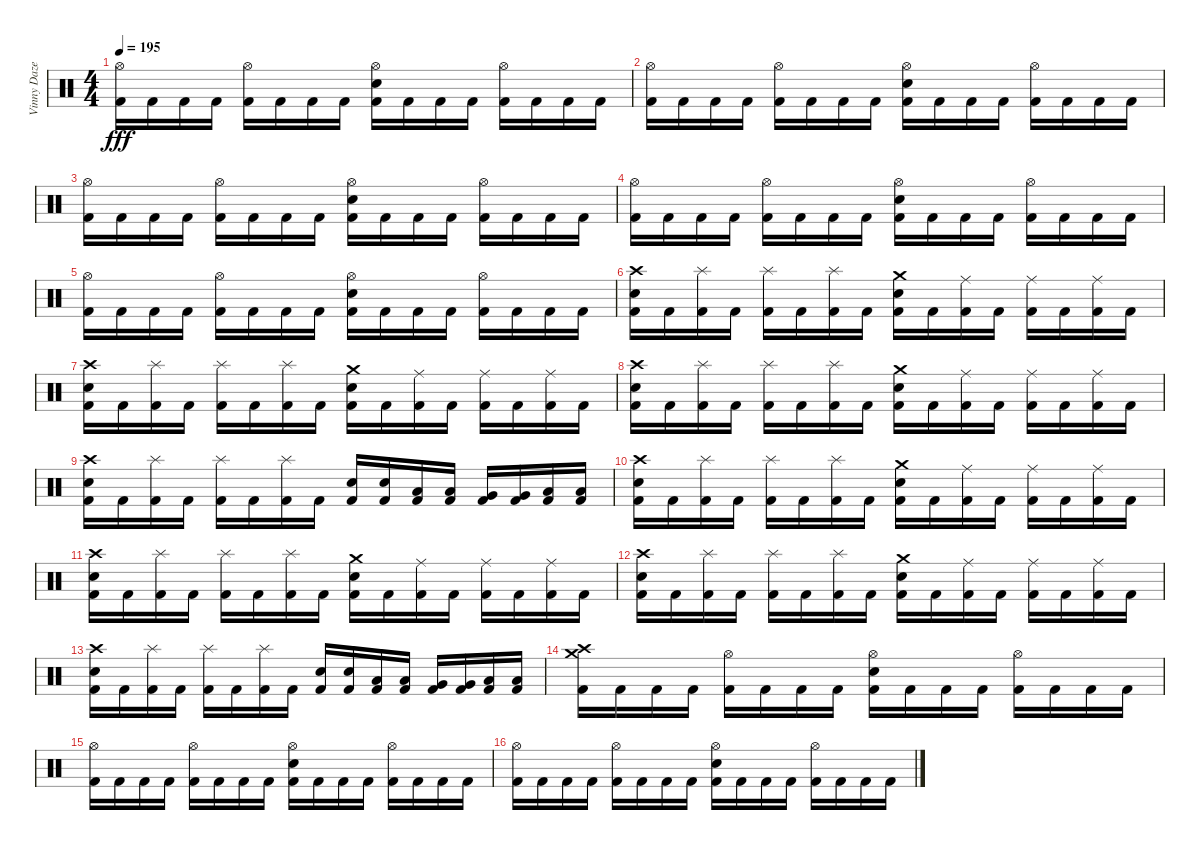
\track ("Vinny Daze (R.I.P.)" "Vinny Daze") {instrument percussion}
\staff {score}
\articulation defaults
\ts (4 4)
\tempo 195
\clef neutral
\ks c
("Hi-Hat (open)" "Kick (hit) 2").16{dy fff} "Kick (hit) 2".16 "Kick (hit) 2".16 "Kick (hit) 2".16 ("Hi-Hat (open)" "Kick (hit) 2").16 "Kick (hit) 2".16 "Kick (hit) 2".16 "Kick (hit) 2".16 ("Hi-Hat (open)" "Electric Snare (hit)" "Kick (hit) 2").16 "Kick (hit) 2".16 "Kick (hit) 2".16 "Kick (hit) 2".16 ("Hi-Hat (open)" "Kick (hit) 2").16 "Kick (hit) 2".16 "Kick (hit) 2".16 "Kick (hit) 2".16 |
("Hi-Hat (open)" "Kick (hit) 2").16 "Kick (hit) 2".16 "Kick (hit) 2".16 "Kick (hit) 2".16 ("Hi-Hat (open)" "Kick (hit) 2").16 "Kick (hit) 2".16 "Kick (hit) 2".16 "Kick (hit) 2".16 ("Hi-Hat (open)" "Electric Snare (hit)" "Kick (hit) 2").16 "Kick (hit) 2".16 "Kick (hit) 2".16 "Kick (hit) 2".16 ("Hi-Hat (open)" "Kick (hit) 2").16 "Kick (hit) 2".16 "Kick (hit) 2".16 "Kick (hit) 2".16 |
("Hi-Hat (open)" "Kick (hit) 2").16 "Kick (hit) 2".16 "Kick (hit) 2".16 "Kick (hit) 2".16 ("Hi-Hat (open)" "Kick (hit) 2").16 "Kick (hit) 2".16 "Kick (hit) 2".16 "Kick (hit) 2".16 ("Hi-Hat (open)" "Electric Snare (hit)" "Kick (hit) 2").16 "Kick (hit) 2".16 "Kick (hit) 2".16 "Kick (hit) 2".16 ("Hi-Hat (open)" "Kick (hit) 2").16 "Kick (hit) 2".16 "Kick (hit) 2".16 "Kick (hit) 2".16 |
("Hi-Hat (open)" "Kick (hit) 2").16 "Kick (hit) 2".16 "Kick (hit) 2".16 "Kick (hit) 2".16 ("Hi-Hat (open)" "Kick (hit) 2").16 "Kick (hit) 2".16 "Kick (hit) 2".16 "Kick (hit) 2".16 ("Hi-Hat (open)" "Electric Snare (hit)" "Kick (hit) 2").16 "Kick (hit) 2".16 "Kick (hit) 2".16 "Kick (hit) 2".16 ("Hi-Hat (open)" "Kick (hit) 2").16 "Kick (hit) 2".16 "Kick (hit) 2".16 "Kick (hit) 2".16 |
("Hi-Hat (open)" "Kick (hit) 2").16 "Kick (hit) 2".16 "Kick (hit) 2".16 "Kick (hit) 2".16 ("Hi-Hat (open)" "Kick (hit) 2").16 "Kick (hit) 2".16 "Kick (hit) 2".16 "Kick (hit) 2".16 ("Hi-Hat (open)" "Electric Snare (hit)" "Kick (hit) 2").16 "Kick (hit) 2".16 "Kick (hit) 2".16 "Kick (hit) 2".16 ("Hi-Hat (open)" "Kick (hit) 2").16 "Kick (hit) 2".16 "Kick (hit) 2".16 "Kick (hit) 2".16 |
("Crash high (hit)" "Electric Snare (hit)" "Kick (hit) 2").16 "Kick (hit) 2".16 ("Splash (hit)" "Kick (hit) 2").16 "Kick (hit) 2".16 ("Splash (hit)" "Kick (hit) 2").16 "Kick (hit) 2".16 ("Splash (hit)" "Kick (hit) 2").16 "Kick (hit) 2".16 ("Crash medium (hit)" "Electric Snare (hit)" "Kick (hit) 2").16 "Kick (hit) 2".16 ("Ride (middle)" "Kick (hit) 2").16 "Kick (hit) 2".16 ("Ride (middle)" "Kick (hit) 2").16 "Kick (hit) 2".16 ("Ride (middle)" "Kick (hit) 2").16 "Kick (hit) 2".16 |
("Crash high (hit)" "Electric Snare (hit)" "Kick (hit) 2").16 "Kick (hit) 2".16 ("Splash (hit)" "Kick (hit) 2").16 "Kick (hit) 2".16 ("Splash (hit)" "Kick (hit) 2").16 "Kick (hit) 2".16 ("Splash (hit)" "Kick (hit) 2").16 "Kick (hit) 2".16 ("Crash medium (hit)" "Electric Snare (hit)" "Kick (hit) 2").16 "Kick (hit) 2".16 ("Ride (middle)" "Kick (hit) 2").16 "Kick (hit) 2".16 ("Ride (middle)" "Kick (hit) 2").16 "Kick (hit) 2".16 ("Ride (middle)" "Kick (hit) 2").16 "Kick (hit) 2".16 |
("Crash high (hit)" "Electric Snare (hit)" "Kick (hit) 2").16 "Kick (hit) 2".16 ("Splash (hit)" "Kick (hit) 2").16 "Kick (hit) 2".16 ("Splash (hit)" "Kick (hit) 2").16 "Kick (hit) 2".16 ("Splash (hit)" "Kick (hit) 2").16 "Kick (hit) 2".16 ("Crash medium (hit)" "Electric Snare (hit)" "Kick (hit) 2").16 "Kick (hit) 2".16 ("Ride (middle)" "Kick (hit) 2").16 "Kick (hit) 2".16 ("Ride (middle)" "Kick (hit) 2").16 "Kick (hit) 2".16 ("Ride (middle)" "Kick (hit) 2").16 "Kick (hit) 2".16 |
("Crash high (hit)" "Electric Snare (hit)" "Kick (hit) 2").16 "Kick (hit) 2".16 ("Splash (hit)" "Kick (hit) 2").16 "Kick (hit) 2".16 ("Splash (hit)" "Kick (hit) 2").16 "Kick (hit) 2".16 ("Splash (hit)" "Kick (hit) 2").16 "Kick (hit) 2".16 ("Electric Snare (hit)" "Kick (hit) 2").16 ("Electric Snare (hit)" "Kick (hit) 2").16 ("Low Tom (hit)" "Kick (hit) 2").16 ("Low Tom (hit)" "Kick (hit) 2").16 ("Very Low Tom (hit)" "Kick (hit) 2").16 ("Very Low Tom (hit)" "Kick (hit) 2").16 ("Low Floor Tom (hit)" "Kick (hit) 2").16 ("Low Floor Tom (hit)" "Kick (hit) 2").16 |
("Crash high (hit)" "Electric Snare (hit)" "Kick (hit) 2").16 "Kick (hit) 2".16 ("Splash (hit)" "Kick (hit) 2").16 "Kick (hit) 2".16 ("Splash (hit)" "Kick (hit) 2").16 "Kick (hit) 2".16 ("Splash (hit)" "Kick (hit) 2").16 "Kick (hit) 2".16 ("Crash medium (hit)" "Electric Snare (hit)" "Kick (hit) 2").16 "Kick (hit) 2".16 ("Ride (middle)" "Kick (hit) 2").16 "Kick (hit) 2".16 ("Ride (middle)" "Kick (hit) 2").16 "Kick (hit) 2".16 ("Ride (middle)" "Kick (hit) 2").16 "Kick (hit) 2".16 |
("Crash high (hit)" "Electric Snare (hit)" "Kick (hit) 2").16 "Kick (hit) 2".16 ("Splash (hit)" "Kick (hit) 2").16 "Kick (hit) 2".16 ("Splash (hit)" "Kick (hit) 2").16 "Kick (hit) 2".16 ("Splash (hit)" "Kick (hit) 2").16 "Kick (hit) 2".16 ("Crash medium (hit)" "Electric Snare (hit)" "Kick (hit) 2").16 "Kick (hit) 2".16 ("Ride (middle)" "Kick (hit) 2").16 "Kick (hit) 2".16 ("Ride (middle)" "Kick (hit) 2").16 "Kick (hit) 2".16 ("Ride (middle)" "Kick (hit) 2").16 "Kick (hit) 2".16 |
("Crash high (hit)" "Electric Snare (hit)" "Kick (hit) 2").16 "Kick (hit) 2".16 ("Splash (hit)" "Kick (hit) 2").16 "Kick (hit) 2".16 ("Splash (hit)" "Kick (hit) 2").16 "Kick (hit) 2".16 ("Splash (hit)" "Kick (hit) 2").16 "Kick (hit) 2".16 ("Crash medium (hit)" "Electric Snare (hit)" "Kick (hit) 2").16 "Kick (hit) 2".16 ("Ride (middle)" "Kick (hit) 2").16 "Kick (hit) 2".16 ("Ride (middle)" "Kick (hit) 2").16 "Kick (hit) 2".16 ("Ride (middle)" "Kick (hit) 2").16 "Kick (hit) 2".16 |
("Crash high (hit)" "Electric Snare (hit)" "Kick (hit) 2").16 "Kick (hit) 2".16 ("Splash (hit)" "Kick (hit) 2").16 "Kick (hit) 2".16 ("Splash (hit)" "Kick (hit) 2").16 "Kick (hit) 2".16 ("Splash (hit)" "Kick (hit) 2").16 "Kick (hit) 2".16 ("Electric Snare (hit)" "Kick (hit) 2").16 ("Electric Snare (hit)" "Kick (hit) 2").16 ("Low Tom (hit)" "Kick (hit) 2").16 ("Low Tom (hit)" "Kick (hit) 2").16 ("Very Low Tom (hit)" "Kick (hit) 2").16 ("Very Low Tom (hit)" "Kick (hit) 2").16 ("Low Floor Tom (hit)" "Kick (hit) 2").16 ("Low Floor Tom (hit)" "Kick (hit) 2").16 |
("Crash medium (hit)" "Crash high (hit)" "Kick (hit) 2").16 "Kick (hit) 2".16 "Kick (hit) 2".16 "Kick (hit) 2".16 ("Hi-Hat (open)" "Kick (hit) 2").16 "Kick (hit) 2".16 "Kick (hit) 2".16 "Kick (hit) 2".16 ("Hi-Hat (open)" "Electric Snare (hit)" "Kick (hit) 2").16 "Kick (hit) 2".16 "Kick (hit) 2".16 "Kick (hit) 2".16 ("Hi-Hat (open)" "Kick (hit) 2").16 "Kick (hit) 2".16 "Kick (hit) 2".16 "Kick (hit) 2".16 |
("Hi-Hat (open)" "Kick (hit) 2").16 "Kick (hit) 2".16 "Kick (hit) 2".16 "Kick (hit) 2".16 ("Hi-Hat (open)" "Kick (hit) 2").16 "Kick (hit) 2".16 "Kick (hit) 2".16 "Kick (hit) 2".16 ("Hi-Hat (open)" "Electric Snare (hit)" "Kick (hit) 2").16 "Kick (hit) 2".16 "Kick (hit) 2".16 "Kick (hit) 2".16 ("Hi-Hat (open)" "Kick (hit) 2").16 "Kick (hit) 2".16 "Kick (hit) 2".16 "Kick (hit) 2".16 |
("Hi-Hat (open)" "Kick (hit) 2").16 "Kick (hit) 2".16 "Kick (hit) 2".16 "Kick (hit) 2".16 ("Hi-Hat (open)" "Kick (hit) 2").16 "Kick (hit) 2".16 "Kick (hit) 2".16 "Kick (hit) 2".16 ("Hi-Hat (open)" "Electric Snare (hit)" "Kick (hit) 2").16 "Kick (hit) 2".16 "Kick (hit) 2".16 "Kick (hit) 2".16 ("Hi-Hat (open)" "Kick (hit) 2").16 "Kick (hit) 2".16 "Kick (hit) 2".16 "Kick (hit) 2".16
